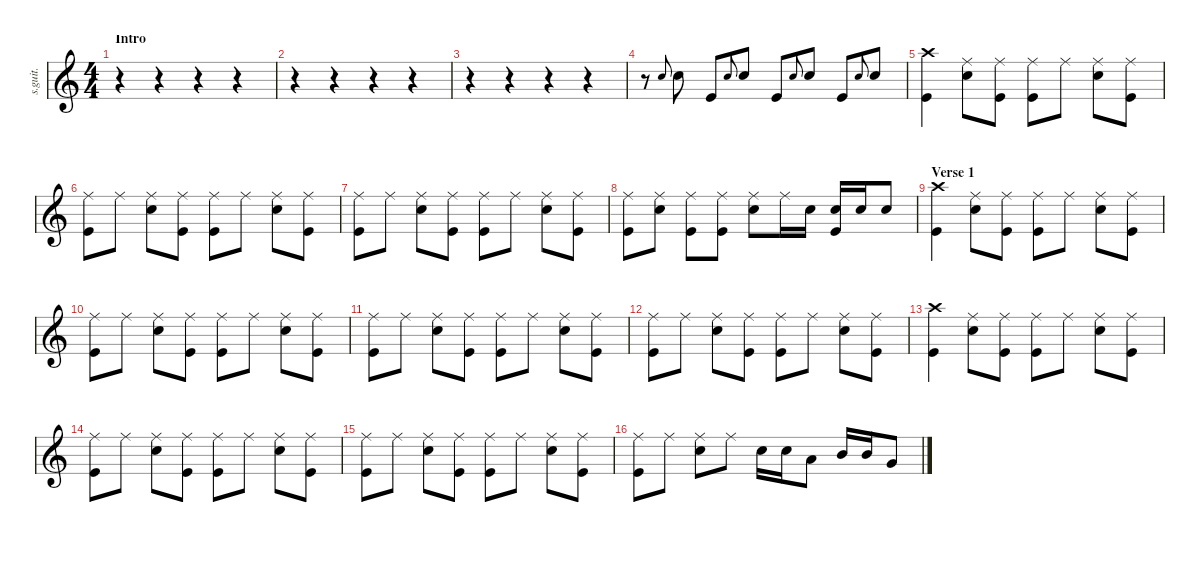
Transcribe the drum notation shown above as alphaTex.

\defaultSystemsLayout 4
\hideDynamics
\bracketExtendMode nobrackets
\track ("Chad Channing - Drums" "s.guit.") {instrument percussion}
\staff {score}
\articulation defaults
\ts (4 4)
\beaming (8 2 2 2 2)
\section ("" "Intro")
\tempo (126 hide)
\clef g2
\ks c
r.4{dy f} r.4 r.4 r.4 |
r.4 r.4 r.4 r.4 |
r.4 r.4 r.4 r.4 |
r.8 "Snare (hit) 2".8{lyrics (0 "") lyrics (1 "") lyrics (2 "") lyrics (3 "") lyrics (4 "") gr onbeat} "Snare (hit) 2".8{lyrics (0 "") lyrics (1 "") lyrics (2 "") lyrics (3 "") lyrics (4 "")} "Kick (hit)".8{lyrics (0 "") lyrics (1 "") lyrics (2 "") lyrics (3 "") lyrics (4 "")} "Snare (hit) 2".8{lyrics (0 "") lyrics (1 "") lyrics (2 "") lyrics (3 "") lyrics (4 "") gr onbeat} "Snare (hit) 2".8{lyrics (0 "") lyrics (1 "") lyrics (2 "") lyrics (3 "") lyrics (4 "")} "Kick (hit)".8{lyrics (0 "") lyrics (1 "") lyrics (2 "") lyrics (3 "") lyrics (4 "")} "Snare (hit) 2".8{lyrics (0 "") lyrics (1 "") lyrics (2 "") lyrics (3 "") lyrics (4 "") gr onbeat} "Snare (hit) 2".8{lyrics (0 "") lyrics (1 "") lyrics (2 "") lyrics (3 "") lyrics (4 "")} "Kick (hit)".8{lyrics (0 "") lyrics (1 "") lyrics (2 "") lyrics (3 "") lyrics (4 "")} "Snare (hit) 2".8{lyrics (0 "") lyrics (1 "") lyrics (2 "") lyrics (3 "") lyrics (4 "") gr onbeat} "Snare (hit) 2".8{lyrics (0 "") lyrics (1 "") lyrics (2 "") lyrics (3 "") lyrics (4 "")} |
("Kick (hit)" "Crash high (hit)").4{lyrics (0 "") lyrics (1 "") lyrics (2 "") lyrics (3 "") lyrics (4 "")} ("Ride (middle)" "Snare (hit) 2").8{lyrics (0 "") lyrics (1 "") lyrics (2 "") lyrics (3 "") lyrics (4 "")} ("Ride (middle)" "Kick (hit)").8{lyrics (0 "") lyrics (1 "") lyrics (2 "") lyrics (3 "") lyrics (4 "")} ("Ride (middle)" "Kick (hit)").8{lyrics (0 "") lyrics (1 "") lyrics (2 "") lyrics (3 "") lyrics (4 "")} "Ride (middle)".8{lyrics (0 "") lyrics (1 "") lyrics (2 "") lyrics (3 "") lyrics (4 "")} ("Ride (middle)" "Snare (hit) 2").8{lyrics (0 "") lyrics (1 "") lyrics (2 "") lyrics (3 "") lyrics (4 "")} ("Ride (middle)" "Kick (hit)").8{lyrics (0 "") lyrics (1 "") lyrics (2 "") lyrics (3 "") lyrics (4 "")} |
("Ride (middle)" "Kick (hit)").8{lyrics (0 "") lyrics (1 "") lyrics (2 "") lyrics (3 "") lyrics (4 "")} "Ride (middle)".8{lyrics (0 "") lyrics (1 "") lyrics (2 "") lyrics (3 "") lyrics (4 "")} ("Ride (middle)" "Snare (hit) 2").8{lyrics (0 "") lyrics (1 "") lyrics (2 "") lyrics (3 "") lyrics (4 "")} ("Ride (middle)" "Kick (hit)").8{lyrics (0 "") lyrics (1 "") lyrics (2 "") lyrics (3 "") lyrics (4 "")} ("Ride (middle)" "Kick (hit)").8{lyrics (0 "") lyrics (1 "") lyrics (2 "") lyrics (3 "") lyrics (4 "")} "Ride (middle)".8{lyrics (0 "") lyrics (1 "") lyrics (2 "") lyrics (3 "") lyrics (4 "")} ("Ride (middle)" "Snare (hit) 2").8{lyrics (0 "") lyrics (1 "") lyrics (2 "") lyrics (3 "") lyrics (4 "")} ("Ride (middle)" "Kick (hit)").8{lyrics (0 "") lyrics (1 "") lyrics (2 "") lyrics (3 "") lyrics (4 "")} |
("Ride (middle)" "Kick (hit)").8{lyrics (0 "") lyrics (1 "") lyrics (2 "") lyrics (3 "") lyrics (4 "")} "Ride (middle)".8{lyrics (0 "") lyrics (1 "") lyrics (2 "") lyrics (3 "") lyrics (4 "")} ("Ride (middle)" "Snare (hit) 2").8{lyrics (0 "") lyrics (1 "") lyrics (2 "") lyrics (3 "") lyrics (4 "")} ("Ride (middle)" "Kick (hit)").8{lyrics (0 "") lyrics (1 "") lyrics (2 "") lyrics (3 "") lyrics (4 "")} ("Ride (middle)" "Kick (hit)").8{lyrics (0 "") lyrics (1 "") lyrics (2 "") lyrics (3 "") lyrics (4 "")} "Ride (middle)".8{lyrics (0 "") lyrics (1 "") lyrics (2 "") lyrics (3 "") lyrics (4 "")} ("Ride (middle)" "Snare (hit) 2").8{lyrics (0 "") lyrics (1 "") lyrics (2 "") lyrics (3 "") lyrics (4 "")} ("Ride (middle)" "Kick (hit)").8{lyrics (0 "") lyrics (1 "") lyrics (2 "") lyrics (3 "") lyrics (4 "")} |
("Ride (middle)" "Kick (hit)").8{lyrics (0 "") lyrics (1 "") lyrics (2 "") lyrics (3 "") lyrics (4 "")} ("Ride (middle)" "Snare (hit) 2").8{lyrics (0 "") lyrics (1 "") lyrics (2 "") lyrics (3 "") lyrics (4 "")} ("Ride (middle)" "Kick (hit)").8{lyrics (0 "") lyrics (1 "") lyrics (2 "") lyrics (3 "") lyrics (4 "")} ("Ride (middle)" "Kick (hit)").8{lyrics (0 "") lyrics (1 "") lyrics (2 "") lyrics (3 "") lyrics (4 "")} ("Ride (middle)" "Snare (hit) 2").8{lyrics (0 "") lyrics (1 "") lyrics (2 "") lyrics (3 "") lyrics (4 "")} "Ride (middle)".16{lyrics (0 "") lyrics (1 "") lyrics (2 "") lyrics (3 "") lyrics (4 "")} "Snare (hit) 2".16{lyrics (0 "") lyrics (1 "") lyrics (2 "") lyrics (3 "") lyrics (4 "")} ("Snare (hit) 2" "Kick (hit)").16{lyrics (0 "") lyrics (1 "") lyrics (2 "") lyrics (3 "") lyrics (4 "")} "Snare (hit) 2".16{lyrics (0 "") lyrics (1 "") lyrics (2 "") lyrics (3 "") lyrics (4 "")} "Snare (hit) 2".8{lyrics (0 "") lyrics (1 "") lyrics (2 "") lyrics (3 "") lyrics (4 "")} |
\section ("" "Verse 1")
("Kick (hit)" "Crash high (hit)").4{lyrics (0 "") lyrics (1 "") lyrics (2 "") lyrics (3 "") lyrics (4 "")} ("Ride (middle)" "Snare (hit) 2").8{lyrics (0 "") lyrics (1 "") lyrics (2 "") lyrics (3 "") lyrics (4 "")} ("Ride (middle)" "Kick (hit)").8{lyrics (0 "") lyrics (1 "") lyrics (2 "") lyrics (3 "") lyrics (4 "")} ("Ride (middle)" "Kick (hit)").8{lyrics (0 "") lyrics (1 "") lyrics (2 "") lyrics (3 "") lyrics (4 "")} "Ride (middle)".8{lyrics (0 "") lyrics (1 "") lyrics (2 "") lyrics (3 "") lyrics (4 "")} ("Ride (middle)" "Snare (hit) 2").8{lyrics (0 "") lyrics (1 "") lyrics (2 "") lyrics (3 "") lyrics (4 "")} ("Ride (middle)" "Kick (hit)").8{lyrics (0 "") lyrics (1 "") lyrics (2 "") lyrics (3 "") lyrics (4 "")} |
("Ride (middle)" "Kick (hit)").8{lyrics (0 "") lyrics (1 "") lyrics (2 "") lyrics (3 "") lyrics (4 "")} "Ride (middle)".8{lyrics (0 "") lyrics (1 "") lyrics (2 "") lyrics (3 "") lyrics (4 "")} ("Ride (middle)" "Snare (hit) 2").8{lyrics (0 "") lyrics (1 "") lyrics (2 "") lyrics (3 "") lyrics (4 "")} ("Ride (middle)" "Kick (hit)").8{lyrics (0 "") lyrics (1 "") lyrics (2 "") lyrics (3 "") lyrics (4 "")} ("Ride (middle)" "Kick (hit)").8{lyrics (0 "") lyrics (1 "") lyrics (2 "") lyrics (3 "") lyrics (4 "")} "Ride (middle)".8{lyrics (0 "") lyrics (1 "") lyrics (2 "") lyrics (3 "") lyrics (4 "")} ("Ride (middle)" "Snare (hit) 2").8{lyrics (0 "") lyrics (1 "") lyrics (2 "") lyrics (3 "") lyrics (4 "")} ("Ride (middle)" "Kick (hit)").8{lyrics (0 "") lyrics (1 "") lyrics (2 "") lyrics (3 "") lyrics (4 "")} |
("Ride (middle)" "Kick (hit)").8{lyrics (0 "") lyrics (1 "") lyrics (2 "") lyrics (3 "") lyrics (4 "")} "Ride (middle)".8{lyrics (0 "") lyrics (1 "") lyrics (2 "") lyrics (3 "") lyrics (4 "")} ("Ride (middle)" "Snare (hit) 2").8{lyrics (0 "") lyrics (1 "") lyrics (2 "") lyrics (3 "") lyrics (4 "")} ("Ride (middle)" "Kick (hit)").8{lyrics (0 "") lyrics (1 "") lyrics (2 "") lyrics (3 "") lyrics (4 "")} ("Ride (middle)" "Kick (hit)").8{lyrics (0 "") lyrics (1 "") lyrics (2 "") lyrics (3 "") lyrics (4 "")} "Ride (middle)".8{lyrics (0 "") lyrics (1 "") lyrics (2 "") lyrics (3 "") lyrics (4 "")} ("Ride (middle)" "Snare (hit) 2").8{lyrics (0 "") lyrics (1 "") lyrics (2 "") lyrics (3 "") lyrics (4 "")} ("Ride (middle)" "Kick (hit)").8{lyrics (0 "") lyrics (1 "") lyrics (2 "") lyrics (3 "") lyrics (4 "")} |
("Ride (middle)" "Kick (hit)").8{lyrics (0 "") lyrics (1 "") lyrics (2 "") lyrics (3 "") lyrics (4 "")} "Ride (middle)".8{lyrics (0 "") lyrics (1 "") lyrics (2 "") lyrics (3 "") lyrics (4 "")} ("Ride (middle)" "Snare (hit) 2").8{lyrics (0 "") lyrics (1 "") lyrics (2 "") lyrics (3 "") lyrics (4 "")} ("Ride (middle)" "Kick (hit)").8{lyrics (0 "") lyrics (1 "") lyrics (2 "") lyrics (3 "") lyrics (4 "")} ("Ride (middle)" "Kick (hit)").8{lyrics (0 "") lyrics (1 "") lyrics (2 "") lyrics (3 "") lyrics (4 "")} "Ride (middle)".8{lyrics (0 "") lyrics (1 "") lyrics (2 "") lyrics (3 "") lyrics (4 "")} ("Ride (middle)" "Snare (hit) 2").8{lyrics (0 "") lyrics (1 "") lyrics (2 "") lyrics (3 "") lyrics (4 "")} ("Ride (middle)" "Kick (hit)").8{lyrics (0 "") lyrics (1 "") lyrics (2 "") lyrics (3 "") lyrics (4 "")} |
("Kick (hit)" "Crash high (hit)").4{lyrics (0 "") lyrics (1 "") lyrics (2 "") lyrics (3 "") lyrics (4 "")} ("Ride (middle)" "Snare (hit) 2").8{lyrics (0 "") lyrics (1 "") lyrics (2 "") lyrics (3 "") lyrics (4 "")} ("Ride (middle)" "Kick (hit)").8{lyrics (0 "") lyrics (1 "") lyrics (2 "") lyrics (3 "") lyrics (4 "")} ("Ride (middle)" "Kick (hit)").8{lyrics (0 "") lyrics (1 "") lyrics (2 "") lyrics (3 "") lyrics (4 "")} "Ride (middle)".8{lyrics (0 "") lyrics (1 "") lyrics (2 "") lyrics (3 "") lyrics (4 "")} ("Ride (middle)" "Snare (hit) 2").8{lyrics (0 "") lyrics (1 "") lyrics (2 "") lyrics (3 "") lyrics (4 "")} ("Ride (middle)" "Kick (hit)").8{lyrics (0 "") lyrics (1 "") lyrics (2 "") lyrics (3 "") lyrics (4 "")} |
("Ride (middle)" "Kick (hit)").8{lyrics (0 "") lyrics (1 "") lyrics (2 "") lyrics (3 "") lyrics (4 "")} "Ride (middle)".8{lyrics (0 "") lyrics (1 "") lyrics (2 "") lyrics (3 "") lyrics (4 "")} ("Ride (middle)" "Snare (hit) 2").8{lyrics (0 "") lyrics (1 "") lyrics (2 "") lyrics (3 "") lyrics (4 "")} ("Ride (middle)" "Kick (hit)").8{lyrics (0 "") lyrics (1 "") lyrics (2 "") lyrics (3 "") lyrics (4 "")} ("Ride (middle)" "Kick (hit)").8{lyrics (0 "") lyrics (1 "") lyrics (2 "") lyrics (3 "") lyrics (4 "")} "Ride (middle)".8{lyrics (0 "") lyrics (1 "") lyrics (2 "") lyrics (3 "") lyrics (4 "")} ("Ride (middle)" "Snare (hit) 2").8{lyrics (0 "") lyrics (1 "") lyrics (2 "") lyrics (3 "") lyrics (4 "")} ("Ride (middle)" "Kick (hit)").8{lyrics (0 "") lyrics (1 "") lyrics (2 "") lyrics (3 "") lyrics (4 "")} |
("Ride (middle)" "Kick (hit)").8{lyrics (0 "") lyrics (1 "") lyrics (2 "") lyrics (3 "") lyrics (4 "")} "Ride (middle)".8{lyrics (0 "") lyrics (1 "") lyrics (2 "") lyrics (3 "") lyrics (4 "")} ("Ride (middle)" "Snare (hit) 2").8{lyrics (0 "") lyrics (1 "") lyrics (2 "") lyrics (3 "") lyrics (4 "")} ("Ride (middle)" "Kick (hit)").8{lyrics (0 "") lyrics (1 "") lyrics (2 "") lyrics (3 "") lyrics (4 "")} ("Ride (middle)" "Kick (hit)").8{lyrics (0 "") lyrics (1 "") lyrics (2 "") lyrics (3 "") lyrics (4 "")} "Ride (middle)".8{lyrics (0 "") lyrics (1 "") lyrics (2 "") lyrics (3 "") lyrics (4 "")} ("Ride (middle)" "Snare (hit) 2").8{lyrics (0 "") lyrics (1 "") lyrics (2 "") lyrics (3 "") lyrics (4 "")} ("Ride (middle)" "Kick (hit)").8{lyrics (0 "") lyrics (1 "") lyrics (2 "") lyrics (3 "") lyrics (4 "")} |
("Ride (middle)" "Kick (hit)").8{lyrics (0 "") lyrics (1 "") lyrics (2 "") lyrics (3 "") lyrics (4 "")} "Ride (middle)".8{lyrics (0 "") lyrics (1 "") lyrics (2 "") lyrics (3 "") lyrics (4 "")} ("Ride (middle)" "Snare (hit) 2").8{lyrics (0 "") lyrics (1 "") lyrics (2 "") lyrics (3 "") lyrics (4 "")} "Ride (middle)".8{lyrics (0 "") lyrics (1 "") lyrics (2 "") lyrics (3 "") lyrics (4 "")} "Snare (hit) 2".16{lyrics (0 "") lyrics (1 "") lyrics (2 "") lyrics (3 "") lyrics (4 "")} "Snare (hit) 2".16{lyrics (0 "") lyrics (1 "") lyrics (2 "") lyrics (3 "") lyrics (4 "")} "Low Tom (hit)".8{lyrics (0 "") lyrics (1 "") lyrics (2 "") lyrics (3 "") lyrics (4 "")} "Mid Tom (hit)".16{lyrics (0 "") lyrics (1 "") lyrics (2 "") lyrics (3 "") lyrics (4 "")} "Mid Tom (hit)".16{lyrics (0 "") lyrics (1 "") lyrics (2 "") lyrics (3 "") lyrics (4 "")} "Very Low Tom (hit)".8{lyrics (0 "") lyrics (1 "") lyrics (2 "") lyrics (3 "") lyrics (4 "")}
